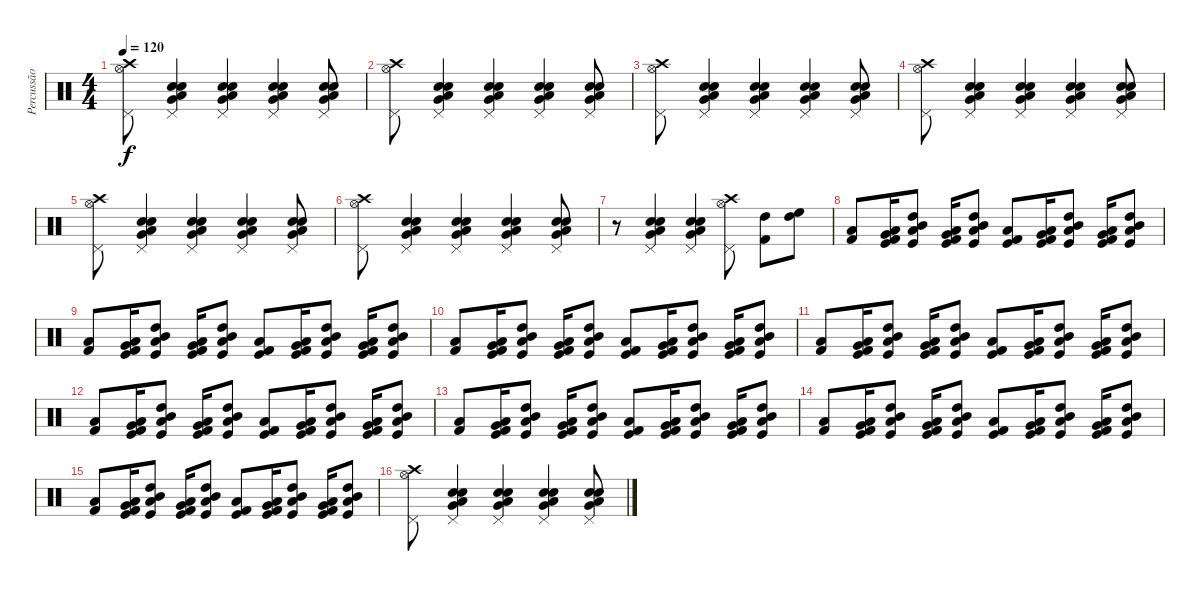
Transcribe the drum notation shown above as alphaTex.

\track ("Percussão" "Percussão") {instrument percussion}
\staff {score}
\articulation defaults
\ts (4 4)
\tempo 120
\clef neutral
\ks c
("Hi-Hat (open)" "Crash high (hit)" "Pedal Hi-Hat (hit)").8{dy f} ("Pedal Hi-Hat (hit)" "Snare (hit) 2" "Electric Snare (hit)" "Low Tom (hit)" "Very Low Tom (hit)").4 ("Pedal Hi-Hat (hit)" "Snare (hit) 2" "Electric Snare (hit)" "Low Tom (hit)" "Very Low Tom (hit)").4 ("Pedal Hi-Hat (hit)" "Snare (hit) 2" "Electric Snare (hit)" "Low Tom (hit)" "Very Low Tom (hit)").4 ("Pedal Hi-Hat (hit)" "Snare (hit) 2" "Electric Snare (hit)" "Low Tom (hit)" "Very Low Tom (hit)").8 |
("Hi-Hat (open)" "Crash high (hit)" "Pedal Hi-Hat (hit)").8 ("Pedal Hi-Hat (hit)" "Snare (hit) 2" "Electric Snare (hit)" "Low Tom (hit)" "Very Low Tom (hit)").4 ("Pedal Hi-Hat (hit)" "Snare (hit) 2" "Electric Snare (hit)" "Low Tom (hit)" "Very Low Tom (hit)").4 ("Pedal Hi-Hat (hit)" "Snare (hit) 2" "Electric Snare (hit)" "Low Tom (hit)" "Very Low Tom (hit)").4 ("Pedal Hi-Hat (hit)" "Snare (hit) 2" "Electric Snare (hit)" "Low Tom (hit)" "Very Low Tom (hit)").8 |
("Hi-Hat (open)" "Crash high (hit)" "Pedal Hi-Hat (hit)").8 ("Pedal Hi-Hat (hit)" "Snare (hit) 2" "Electric Snare (hit)" "Low Tom (hit)" "Very Low Tom (hit)").4 ("Pedal Hi-Hat (hit)" "Snare (hit) 2" "Electric Snare (hit)" "Low Tom (hit)" "Very Low Tom (hit)").4 ("Pedal Hi-Hat (hit)" "Snare (hit) 2" "Electric Snare (hit)" "Low Tom (hit)" "Very Low Tom (hit)").4 ("Pedal Hi-Hat (hit)" "Snare (hit) 2" "Electric Snare (hit)" "Low Tom (hit)" "Very Low Tom (hit)").8 |
("Hi-Hat (open)" "Crash high (hit)" "Pedal Hi-Hat (hit)").8 ("Pedal Hi-Hat (hit)" "Snare (hit) 2" "Electric Snare (hit)" "Low Tom (hit)" "Very Low Tom (hit)").4 ("Pedal Hi-Hat (hit)" "Snare (hit) 2" "Electric Snare (hit)" "Low Tom (hit)" "Very Low Tom (hit)").4 ("Pedal Hi-Hat (hit)" "Snare (hit) 2" "Electric Snare (hit)" "Low Tom (hit)" "Very Low Tom (hit)").4 ("Pedal Hi-Hat (hit)" "Snare (hit) 2" "Electric Snare (hit)" "Low Tom (hit)" "Very Low Tom (hit)").8 |
("Hi-Hat (open)" "Crash high (hit)" "Pedal Hi-Hat (hit)").8 ("Pedal Hi-Hat (hit)" "Snare (hit) 2" "Electric Snare (hit)" "Low Tom (hit)" "Very Low Tom (hit)").4 ("Pedal Hi-Hat (hit)" "Snare (hit) 2" "Electric Snare (hit)" "Low Tom (hit)" "Very Low Tom (hit)").4 ("Pedal Hi-Hat (hit)" "Snare (hit) 2" "Electric Snare (hit)" "Low Tom (hit)" "Very Low Tom (hit)").4 ("Pedal Hi-Hat (hit)" "Snare (hit) 2" "Electric Snare (hit)" "Low Tom (hit)" "Very Low Tom (hit)").8 |
("Hi-Hat (open)" "Crash high (hit)" "Pedal Hi-Hat (hit)").8 ("Pedal Hi-Hat (hit)" "Snare (hit) 2" "Electric Snare (hit)" "Low Tom (hit)" "Very Low Tom (hit)").4 ("Pedal Hi-Hat (hit)" "Snare (hit) 2" "Electric Snare (hit)" "Low Tom (hit)" "Very Low Tom (hit)").4 ("Pedal Hi-Hat (hit)" "Snare (hit) 2" "Electric Snare (hit)" "Low Tom (hit)" "Very Low Tom (hit)").4 ("Pedal Hi-Hat (hit)" "Snare (hit) 2" "Electric Snare (hit)" "Low Tom (hit)" "Very Low Tom (hit)").8 |
r.8 ("Pedal Hi-Hat (hit)" "Snare (hit) 2" "Electric Snare (hit)" "Low Tom (hit)" "Very Low Tom (hit)").4 ("Pedal Hi-Hat (hit)" "Snare (hit) 2" "Electric Snare (hit)" "Low Tom (hit)" "Very Low Tom (hit)").4 ("Hi-Hat (open)" "Crash high (hit)" "Pedal Hi-Hat (hit)").8 ("High Tom (hit)" "Kick (hit) 2").8 ("High Tom (hit)" "High Floor Tom (hit)").8 |
("Kick (hit) 2" "Low Floor Tom (hit)").8 ("Low Tom (hit)" "Kick (hit) 2" "Very Low Tom (hit)" "Kick (hit)").16 ("Low Tom (hit)" "Mid Tom (hit)" "Kick (hit)" "High Tom (hit)").8 ("Low Tom (hit)" "Kick (hit) 2" "Very Low Tom (hit)" "Kick (hit)").16 ("Low Tom (hit)" "Mid Tom (hit)" "Kick (hit)" "High Tom (hit)").8 ("Kick (hit) 2" "Kick (hit)" "Low Floor Tom (hit)").8 ("Low Tom (hit)" "Kick (hit) 2" "Very Low Tom (hit)" "Kick (hit)").16 ("Low Tom (hit)" "Mid Tom (hit)" "Kick (hit)" "High Tom (hit)").8 ("Low Tom (hit)" "Kick (hit) 2" "Very Low Tom (hit)" "Kick (hit)").16 ("Low Tom (hit)" "Mid Tom (hit)" "Kick (hit)" "High Tom (hit)").8 |
("Kick (hit) 2" "Low Floor Tom (hit)").8 ("Low Tom (hit)" "Kick (hit) 2" "Very Low Tom (hit)" "Kick (hit)").16 ("Low Tom (hit)" "Mid Tom (hit)" "Kick (hit)" "High Tom (hit)").8 ("Low Tom (hit)" "Kick (hit) 2" "Very Low Tom (hit)" "Kick (hit)").16 ("Low Tom (hit)" "Mid Tom (hit)" "Kick (hit)" "High Tom (hit)").8 ("Kick (hit) 2" "Kick (hit)" "Low Floor Tom (hit)").8 ("Low Tom (hit)" "Kick (hit) 2" "Very Low Tom (hit)" "Kick (hit)").16 ("Low Tom (hit)" "Mid Tom (hit)" "Kick (hit)" "High Tom (hit)").8 ("Low Tom (hit)" "Kick (hit) 2" "Very Low Tom (hit)" "Kick (hit)").16 ("Low Tom (hit)" "Mid Tom (hit)" "Kick (hit)" "High Tom (hit)").8 |
("Kick (hit) 2" "Low Floor Tom (hit)").8 ("Low Tom (hit)" "Kick (hit) 2" "Very Low Tom (hit)" "Kick (hit)").16 ("Low Tom (hit)" "Mid Tom (hit)" "Kick (hit)" "High Tom (hit)").8 ("Low Tom (hit)" "Kick (hit) 2" "Very Low Tom (hit)" "Kick (hit)").16 ("Low Tom (hit)" "Mid Tom (hit)" "Kick (hit)" "High Tom (hit)").8 ("Kick (hit) 2" "Kick (hit)" "Low Floor Tom (hit)").8 ("Low Tom (hit)" "Kick (hit) 2" "Very Low Tom (hit)" "Kick (hit)").16 ("Low Tom (hit)" "Mid Tom (hit)" "Kick (hit)" "High Tom (hit)").8 ("Low Tom (hit)" "Kick (hit) 2" "Very Low Tom (hit)" "Kick (hit)").16 ("Low Tom (hit)" "Mid Tom (hit)" "Kick (hit)" "High Tom (hit)").8 |
("Kick (hit) 2" "Low Floor Tom (hit)").8 ("Low Tom (hit)" "Kick (hit) 2" "Very Low Tom (hit)" "Kick (hit)").16 ("Low Tom (hit)" "Mid Tom (hit)" "Kick (hit)" "High Tom (hit)").8 ("Low Tom (hit)" "Kick (hit) 2" "Very Low Tom (hit)" "Kick (hit)").16 ("Low Tom (hit)" "Mid Tom (hit)" "Kick (hit)" "High Tom (hit)").8 ("Kick (hit) 2" "Kick (hit)" "Low Floor Tom (hit)").8 ("Low Tom (hit)" "Kick (hit) 2" "Very Low Tom (hit)" "Kick (hit)").16 ("Low Tom (hit)" "Mid Tom (hit)" "Kick (hit)" "High Tom (hit)").8 ("Low Tom (hit)" "Kick (hit) 2" "Very Low Tom (hit)" "Kick (hit)").16 ("Low Tom (hit)" "Mid Tom (hit)" "Kick (hit)" "High Tom (hit)").8 |
("Kick (hit) 2" "Low Floor Tom (hit)").8 ("Low Tom (hit)" "Kick (hit) 2" "Very Low Tom (hit)" "Kick (hit)").16 ("Low Tom (hit)" "Mid Tom (hit)" "Kick (hit)" "High Tom (hit)").8 ("Low Tom (hit)" "Kick (hit) 2" "Very Low Tom (hit)" "Kick (hit)").16 ("Low Tom (hit)" "Mid Tom (hit)" "Kick (hit)" "High Tom (hit)").8 ("Kick (hit) 2" "Kick (hit)" "Low Floor Tom (hit)").8 ("Low Tom (hit)" "Kick (hit) 2" "Very Low Tom (hit)" "Kick (hit)").16 ("Low Tom (hit)" "Mid Tom (hit)" "Kick (hit)" "High Tom (hit)").8 ("Low Tom (hit)" "Kick (hit) 2" "Very Low Tom (hit)" "Kick (hit)").16 ("Low Tom (hit)" "Mid Tom (hit)" "Kick (hit)" "High Tom (hit)").8 |
("Kick (hit) 2" "Low Floor Tom (hit)").8 ("Low Tom (hit)" "Kick (hit) 2" "Very Low Tom (hit)" "Kick (hit)").16 ("Low Tom (hit)" "Mid Tom (hit)" "Kick (hit)" "High Tom (hit)").8 ("Low Tom (hit)" "Kick (hit) 2" "Very Low Tom (hit)" "Kick (hit)").16 ("Low Tom (hit)" "Mid Tom (hit)" "Kick (hit)" "High Tom (hit)").8 ("Kick (hit) 2" "Kick (hit)" "Low Floor Tom (hit)").8 ("Low Tom (hit)" "Kick (hit) 2" "Very Low Tom (hit)" "Kick (hit)").16 ("Low Tom (hit)" "Mid Tom (hit)" "Kick (hit)" "High Tom (hit)").8 ("Low Tom (hit)" "Kick (hit) 2" "Very Low Tom (hit)" "Kick (hit)").16 ("Low Tom (hit)" "Mid Tom (hit)" "Kick (hit)" "High Tom (hit)").8 |
("Kick (hit) 2" "Low Floor Tom (hit)").8 ("Low Tom (hit)" "Kick (hit) 2" "Very Low Tom (hit)" "Kick (hit)").16 ("Low Tom (hit)" "Mid Tom (hit)" "Kick (hit)" "High Tom (hit)").8 ("Low Tom (hit)" "Kick (hit) 2" "Very Low Tom (hit)" "Kick (hit)").16 ("Low Tom (hit)" "Mid Tom (hit)" "Kick (hit)" "High Tom (hit)").8 ("Kick (hit) 2" "Kick (hit)" "Low Floor Tom (hit)").8 ("Low Tom (hit)" "Kick (hit) 2" "Very Low Tom (hit)" "Kick (hit)").16 ("Low Tom (hit)" "Mid Tom (hit)" "Kick (hit)" "High Tom (hit)").8 ("Low Tom (hit)" "Kick (hit) 2" "Very Low Tom (hit)" "Kick (hit)").16 ("Low Tom (hit)" "Mid Tom (hit)" "Kick (hit)" "High Tom (hit)").8 |
("Kick (hit) 2" "Low Floor Tom (hit)").8 ("Low Tom (hit)" "Kick (hit) 2" "Very Low Tom (hit)" "Kick (hit)").16 ("Low Tom (hit)" "Mid Tom (hit)" "Kick (hit)" "High Tom (hit)").8 ("Low Tom (hit)" "Kick (hit) 2" "Very Low Tom (hit)" "Kick (hit)").16 ("Low Tom (hit)" "Mid Tom (hit)" "Kick (hit)" "High Tom (hit)").8 ("Kick (hit) 2" "Kick (hit)" "Low Floor Tom (hit)").8 ("Low Tom (hit)" "Kick (hit) 2" "Very Low Tom (hit)" "Kick (hit)").16 ("Low Tom (hit)" "Mid Tom (hit)" "Kick (hit)" "High Tom (hit)").8 ("Low Tom (hit)" "Kick (hit) 2" "Very Low Tom (hit)" "Kick (hit)").16 ("Low Tom (hit)" "Mid Tom (hit)" "Kick (hit)" "High Tom (hit)").8 |
("Hi-Hat (open)" "Crash high (hit)" "Pedal Hi-Hat (hit)").8 ("Pedal Hi-Hat (hit)" "Snare (hit) 2" "Electric Snare (hit)" "Low Tom (hit)" "Very Low Tom (hit)").4 ("Pedal Hi-Hat (hit)" "Snare (hit) 2" "Electric Snare (hit)" "Low Tom (hit)" "Very Low Tom (hit)").4 ("Pedal Hi-Hat (hit)" "Snare (hit) 2" "Electric Snare (hit)" "Low Tom (hit)" "Very Low Tom (hit)").4 ("Pedal Hi-Hat (hit)" "Snare (hit) 2" "Electric Snare (hit)" "Low Tom (hit)" "Very Low Tom (hit)").8
